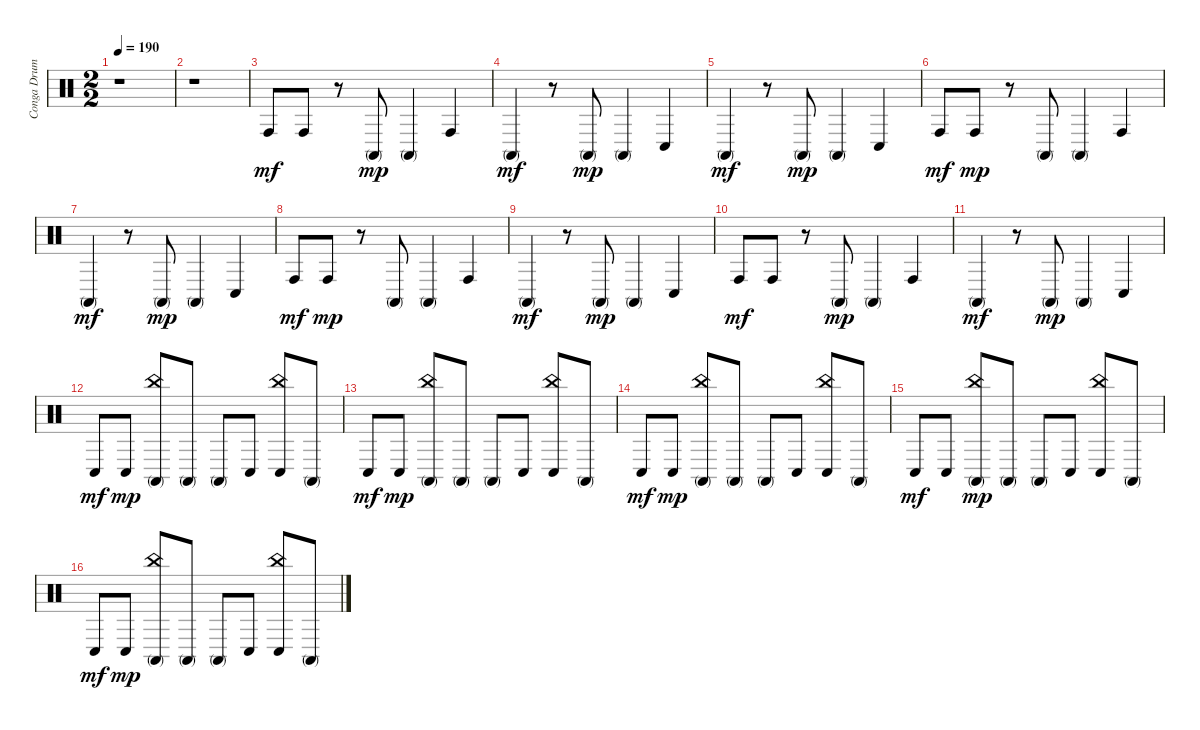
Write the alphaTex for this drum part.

\track ("Conga Drums" "Conga Drum") {instrument percussion}
\staff {score}
\articulation defaults
\ts (2 2)
\tempo 190
\clef neutral
\ks c
r.1{dy mp} |
r.1 |
"Conga high (hit)".8{dy mf} "Conga high (hit)".8 r.8 "Conga high (mute)".8{dy mp} "Conga high (mute)".4 "Conga high (hit)".4 |
"Conga high (mute)".4{dy mf} r.8 "Conga high (mute)".8{dy mp} "Conga high (mute)".4 "Conga low (hit)".4 |
"Conga high (mute)".4{dy mf} r.8 "Conga high (mute)".8{dy mp} "Conga high (mute)".4 "Conga low (hit)".4 |
"Conga high (hit)".8{dy mf} "Conga high (hit)".8{dy mp} r.8 "Conga high (mute)".8 "Conga high (mute)".4 "Conga high (hit)".4 |
"Conga high (mute)".4{dy mf} r.8 "Conga high (mute)".8{dy mp} "Conga high (mute)".4 "Conga low (hit)".4 |
"Conga high (hit)".8{dy mf} "Conga high (hit)".8{dy mp} r.8 "Conga high (mute)".8 "Conga high (mute)".4 "Conga high (hit)".4 |
"Conga high (mute)".4{dy mf} r.8 "Conga high (mute)".8{dy mp} "Conga high (mute)".4 "Conga low (hit)".4 |
"Conga high (hit)".8{dy mf} "Conga high (hit)".8 r.8 "Conga high (mute)".8{dy mp} "Conga high (mute)".4 "Conga high (hit)".4 |
"Conga high (mute)".4{dy mf} r.8 "Conga high (mute)".8{dy mp} "Conga high (mute)".4 "Conga low (hit)".4 |
"Conga low (hit)".8{dy mf} "Conga low (hit)".8{dy mp} ("China (hit)" "Conga high (mute)").8 "Conga high (mute)".8 "Conga high (mute)".8 "Conga low (hit)".8 ("China (hit)" "Conga low (hit)").8 "Conga high (mute)".8 |
"Conga low (hit)".8{dy mf} "Conga low (hit)".8{dy mp} ("China (hit)" "Conga high (mute)").8 "Conga high (mute)".8 "Conga high (mute)".8 "Conga low (hit)".8 ("China (hit)" "Conga low (hit)").8 "Conga high (mute)".8 |
"Conga low (hit)".8{dy mf} "Conga low (hit)".8{dy mp} ("China (hit)" "Conga high (mute)").8 "Conga high (mute)".8 "Conga high (mute)".8 "Conga low (hit)".8 ("China (hit)" "Conga low (hit)").8 "Conga high (mute)".8 |
"Conga low (hit)".8{dy mf} "Conga low (hit)".8 ("China (hit)" "Conga high (mute)").8{dy mp} "Conga high (mute)".8 "Conga high (mute)".8 "Conga low (hit)".8 ("China (hit)" "Conga low (hit)").8 "Conga high (mute)".8 |
"Conga low (hit)".8{dy mf} "Conga low (hit)".8{dy mp} ("China (hit)" "Conga high (mute)").8 "Conga high (mute)".8 "Conga high (mute)".8 "Conga low (hit)".8 ("China (hit)" "Conga low (hit)").8 "Conga high (mute)".8
